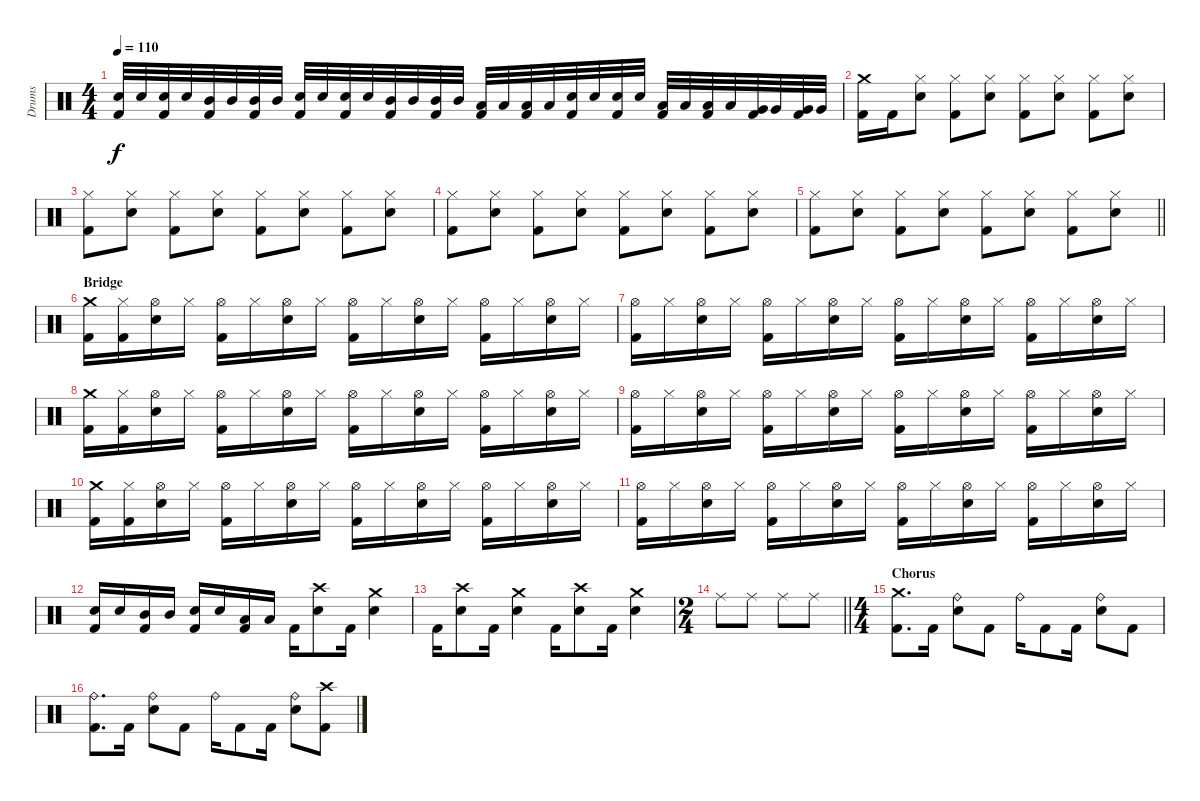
\track ("Drums" "Drums") {instrument percussion}
\staff {score}
\articulation defaults
\ts (4 4)
\tempo 110
\clef neutral
\ks c
("Kick (hit) 2" "Snare (hit) 2").32{dy f} "Snare (hit) 2".32 ("Kick (hit) 2" "Snare (hit) 2").32 "Snare (hit) 2".32 ("Kick (hit) 2" "Mid Tom (hit)").32 "Mid Tom (hit)".32 ("Kick (hit) 2" "Mid Tom (hit)").32 "Mid Tom (hit)".32 ("Kick (hit) 2" "Snare (hit) 2").32 "Snare (hit) 2".32 ("Kick (hit) 2" "Snare (hit) 2").32 "Snare (hit) 2".32 ("Kick (hit) 2" "Mid Tom (hit)").32 "Mid Tom (hit)".32 ("Kick (hit) 2" "Mid Tom (hit)").32 "Mid Tom (hit)".32 ("Kick (hit) 2" "Low Tom (hit)").32 "Low Tom (hit)".32 ("Kick (hit) 2" "Low Tom (hit)").32 "Low Tom (hit)".32 ("Kick (hit) 2" "Snare (hit) 2").32 "Snare (hit) 2".32 ("Kick (hit) 2" "Snare (hit) 2").32 "Snare (hit) 2".32 ("Kick (hit) 2" "Low Tom (hit)").32 "Low Tom (hit)".32 ("Kick (hit) 2" "Low Tom (hit)").32 "Low Tom (hit)".32 ("Kick (hit) 2" "Very Low Tom (hit)").32 "Very Low Tom (hit)".32 ("Kick (hit) 2" "Very Low Tom (hit)").32 "Very Low Tom (hit)".32 |
("Kick (hit) 2" "Crash medium (hit)").16 "Kick (hit) 2".16 ("Snare (hit) 2" "Hi-Hat (closed)").8 ("Kick (hit) 2" "Hi-Hat (closed)").8 ("Snare (hit) 2" "Hi-Hat (closed)").8 ("Kick (hit) 2" "Hi-Hat (closed)").8 ("Snare (hit) 2" "Hi-Hat (closed)").8 ("Kick (hit) 2" "Hi-Hat (closed)").8 ("Snare (hit) 2" "Hi-Hat (closed)").8 |
("Kick (hit) 2" "Hi-Hat (closed)").8 ("Snare (hit) 2" "Hi-Hat (closed)").8 ("Kick (hit) 2" "Hi-Hat (closed)").8 ("Snare (hit) 2" "Hi-Hat (closed)").8 ("Kick (hit) 2" "Hi-Hat (closed)").8 ("Snare (hit) 2" "Hi-Hat (closed)").8 ("Kick (hit) 2" "Hi-Hat (closed)").8 ("Snare (hit) 2" "Hi-Hat (closed)").8 |
("Kick (hit) 2" "Hi-Hat (closed)").8 ("Snare (hit) 2" "Hi-Hat (closed)").8 ("Kick (hit) 2" "Hi-Hat (closed)").8 ("Snare (hit) 2" "Hi-Hat (closed)").8 ("Kick (hit) 2" "Hi-Hat (closed)").8 ("Snare (hit) 2" "Hi-Hat (closed)").8 ("Kick (hit) 2" "Hi-Hat (closed)").8 ("Snare (hit) 2" "Hi-Hat (closed)").8 |
\barLineRight lightlight
("Kick (hit) 2" "Hi-Hat (closed)").8 ("Snare (hit) 2" "Hi-Hat (closed)").8 ("Kick (hit) 2" "Hi-Hat (closed)").8 ("Snare (hit) 2" "Hi-Hat (closed)").8 ("Kick (hit) 2" "Hi-Hat (closed)").8 ("Snare (hit) 2" "Hi-Hat (closed)").8 ("Kick (hit) 2" "Hi-Hat (closed)").8 ("Snare (hit) 2" "Hi-Hat (closed)").8 |
\section ("" "Bridge")
("Kick (hit) 2" "Crash medium (hit)").16 ("Kick (hit) 2" "Hi-Hat (closed)").16 ("Snare (hit) 2" "Hi-Hat (open)").16 "Hi-Hat (closed)".16 ("Kick (hit) 2" "Hi-Hat (open)").16 "Hi-Hat (closed)".16 ("Snare (hit) 2" "Hi-Hat (open)").16 "Hi-Hat (closed)".16 ("Kick (hit) 2" "Hi-Hat (open)").16 "Hi-Hat (closed)".16 ("Snare (hit) 2" "Hi-Hat (open)").16 "Hi-Hat (closed)".16 ("Kick (hit) 2" "Hi-Hat (open)").16 "Hi-Hat (closed)".16 ("Snare (hit) 2" "Hi-Hat (open)").16 "Hi-Hat (closed)".16 |
("Kick (hit) 2" "Hi-Hat (open)").16 "Hi-Hat (closed)".16 ("Snare (hit) 2" "Hi-Hat (open)").16 "Hi-Hat (closed)".16 ("Kick (hit) 2" "Hi-Hat (open)").16 "Hi-Hat (closed)".16 ("Snare (hit) 2" "Hi-Hat (open)").16 "Hi-Hat (closed)".16 ("Kick (hit) 2" "Hi-Hat (open)").16 "Hi-Hat (closed)".16 ("Snare (hit) 2" "Hi-Hat (open)").16 "Hi-Hat (closed)".16 ("Kick (hit) 2" "Hi-Hat (open)").16 "Hi-Hat (closed)".16 ("Snare (hit) 2" "Hi-Hat (open)").16 "Hi-Hat (closed)".16 |
("Kick (hit) 2" "Crash medium (hit)").16 ("Kick (hit) 2" "Hi-Hat (closed)").16 ("Snare (hit) 2" "Hi-Hat (open)").16 "Hi-Hat (closed)".16 ("Kick (hit) 2" "Hi-Hat (open)").16 "Hi-Hat (closed)".16 ("Snare (hit) 2" "Hi-Hat (open)").16 "Hi-Hat (closed)".16 ("Kick (hit) 2" "Hi-Hat (open)").16 "Hi-Hat (closed)".16 ("Snare (hit) 2" "Hi-Hat (open)").16 "Hi-Hat (closed)".16 ("Kick (hit) 2" "Hi-Hat (open)").16 "Hi-Hat (closed)".16 ("Snare (hit) 2" "Hi-Hat (open)").16 "Hi-Hat (closed)".16 |
("Kick (hit) 2" "Hi-Hat (open)").16 "Hi-Hat (closed)".16 ("Snare (hit) 2" "Hi-Hat (open)").16 "Hi-Hat (closed)".16 ("Kick (hit) 2" "Hi-Hat (open)").16 "Hi-Hat (closed)".16 ("Snare (hit) 2" "Hi-Hat (open)").16 "Hi-Hat (closed)".16 ("Kick (hit) 2" "Hi-Hat (open)").16 "Hi-Hat (closed)".16 ("Snare (hit) 2" "Hi-Hat (open)").16 "Hi-Hat (closed)".16 ("Kick (hit) 2" "Hi-Hat (open)").16 "Hi-Hat (closed)".16 ("Snare (hit) 2" "Hi-Hat (open)").16 "Hi-Hat (closed)".16 |
("Kick (hit) 2" "Crash medium (hit)").16 ("Kick (hit) 2" "Hi-Hat (closed)").16 ("Snare (hit) 2" "Hi-Hat (open)").16 "Hi-Hat (closed)".16 ("Kick (hit) 2" "Hi-Hat (open)").16 "Hi-Hat (closed)".16 ("Snare (hit) 2" "Hi-Hat (open)").16 "Hi-Hat (closed)".16 ("Kick (hit) 2" "Hi-Hat (open)").16 "Hi-Hat (closed)".16 ("Snare (hit) 2" "Hi-Hat (open)").16 "Hi-Hat (closed)".16 ("Kick (hit) 2" "Hi-Hat (open)").16 "Hi-Hat (closed)".16 ("Snare (hit) 2" "Hi-Hat (open)").16 "Hi-Hat (closed)".16 |
("Kick (hit) 2" "Hi-Hat (open)").16 "Hi-Hat (closed)".16 ("Snare (hit) 2" "Hi-Hat (open)").16 "Hi-Hat (closed)".16 ("Kick (hit) 2" "Hi-Hat (open)").16 "Hi-Hat (closed)".16 ("Snare (hit) 2" "Hi-Hat (open)").16 "Hi-Hat (closed)".16 ("Kick (hit) 2" "Hi-Hat (open)").16 "Hi-Hat (closed)".16 ("Snare (hit) 2" "Hi-Hat (open)").16 "Hi-Hat (closed)".16 ("Kick (hit) 2" "Hi-Hat (open)").16 "Hi-Hat (closed)".16 ("Snare (hit) 2" "Hi-Hat (open)").16 "Hi-Hat (closed)".16 |
("Kick (hit) 2" "Snare (hit) 2").16 "Snare (hit) 2".16 ("Kick (hit) 2" "Mid Tom (hit)").16 "Mid Tom (hit)".16 ("Kick (hit) 2" "Snare (hit) 2").16 "Snare (hit) 2".16 ("Kick (hit) 2" "Low Tom (hit)").16 "Low Tom (hit)".16 "Kick (hit) 2".16 ("Snare (hit) 2" "Crash high (hit)").8 "Kick (hit) 2".16 ("Snare (hit) 2" "Crash medium (hit)").4 |
"Kick (hit) 2".16 ("Snare (hit) 2" "Crash high (hit)").8 "Kick (hit) 2".16 ("Snare (hit) 2" "Crash medium (hit)").4 "Kick (hit) 2".16 ("Snare (hit) 2" "Crash high (hit)").8 "Kick (hit) 2".16 ("Snare (hit) 2" "Crash medium (hit)").4 |
\ts (2 4)
\barLineRight lightlight "Ride (middle)".8 "Ride (middle)".8 "Ride (middle)".8 "Ride (middle)".8
|
\ts (4 4)
\section ("" "Chorus")
("Kick (hit) 2" "Crash medium (hit)").8{d} "Kick (hit) 2".16 ("Snare (hit) 2" "Ride (bell)").8 "Kick (hit) 2".8 "Ride (bell)".16 "Kick (hit) 2".8 "Kick (hit) 2".16 ("Snare (hit) 2" "Ride (bell)").8 "Kick (hit) 2".8 |
("Kick (hit) 2" "Ride (bell)").8{d} "Kick (hit) 2".16 ("Snare (hit) 2" "Ride (bell)").8 "Kick (hit) 2".8 "Ride (bell)".16 "Kick (hit) 2".8 "Kick (hit) 2".16 ("Snare (hit) 2" "Ride (bell)").8 ("Kick (hit) 2" "Crash high (hit)").8
